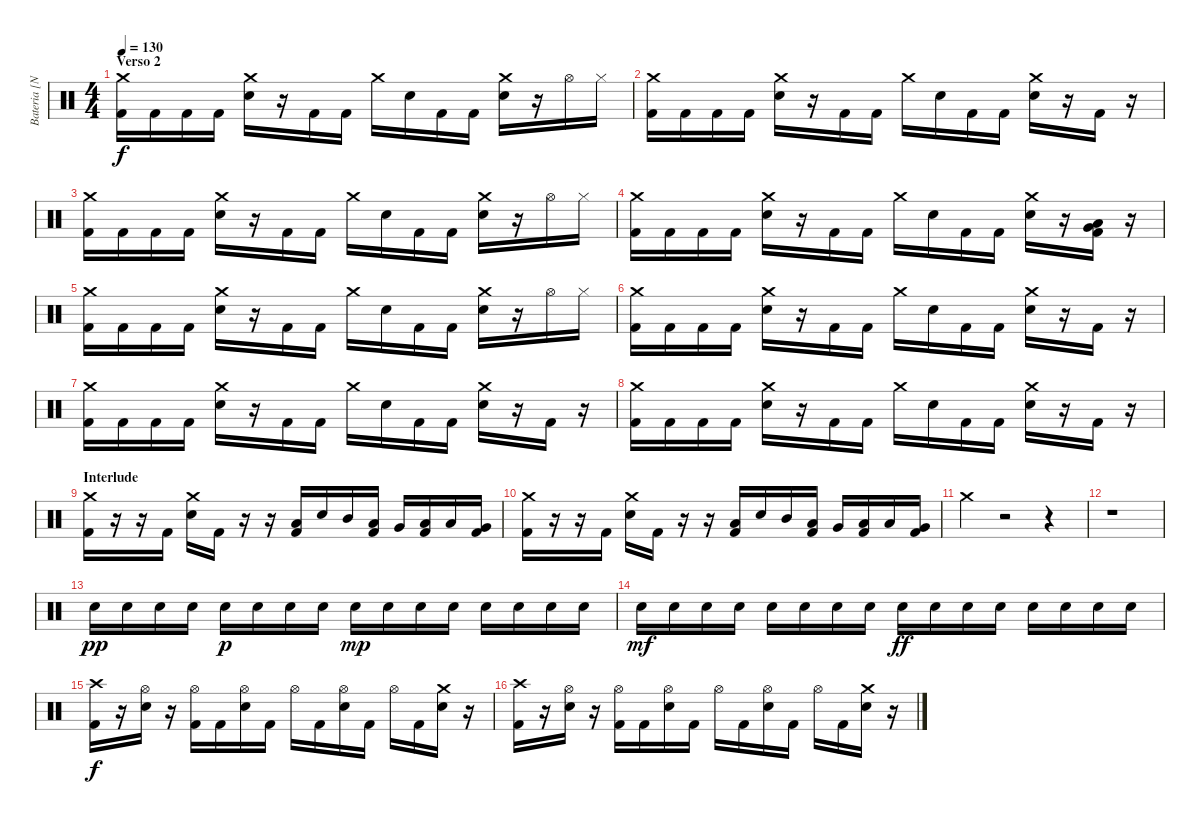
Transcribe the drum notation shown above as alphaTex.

\track ("Bateria [Nô]" "Bateria [N") {instrument percussion}
\staff {score}
\articulation defaults
\ts (4 4)
\section ("" "Verso 2")
\tempo 130
\clef neutral
\ks c
("Crash medium (hit)" "Kick (hit) 2").16{dy f} "Kick (hit) 2".16 "Kick (hit) 2".16 "Kick (hit) 2".16 ("Crash medium (hit)" "Snare (hit) 2").16 r.16 "Kick (hit) 2".16 "Kick (hit) 2".16 "Crash medium (hit)".16 "Snare (hit) 2".16 "Kick (hit) 2".16 "Kick (hit) 2".16 ("Crash medium (hit)" "Snare (hit) 2").16 r.16 "Hi-Hat (open)".16 "Hi-Hat (closed)".16 |
("Crash medium (hit)" "Kick (hit) 2").16 "Kick (hit) 2".16 "Kick (hit) 2".16 "Kick (hit) 2".16 ("Crash medium (hit)" "Snare (hit) 2").16 r.16 "Kick (hit) 2".16 "Kick (hit) 2".16 "Crash medium (hit)".16 "Snare (hit) 2".16 "Kick (hit) 2".16 "Kick (hit) 2".16 ("Crash medium (hit)" "Snare (hit) 2").16 r.16 "Kick (hit) 2".16 r.16 |
("Crash medium (hit)" "Kick (hit) 2").16 "Kick (hit) 2".16 "Kick (hit) 2".16 "Kick (hit) 2".16 ("Crash medium (hit)" "Snare (hit) 2").16 r.16 "Kick (hit) 2".16 "Kick (hit) 2".16 "Crash medium (hit)".16 "Snare (hit) 2".16 "Kick (hit) 2".16 "Kick (hit) 2".16 ("Crash medium (hit)" "Snare (hit) 2").16 r.16 "Hi-Hat (open)".16 "Hi-Hat (closed)".16 |
("Crash medium (hit)" "Kick (hit) 2").16 "Kick (hit) 2".16 "Kick (hit) 2".16 "Kick (hit) 2".16 ("Crash medium (hit)" "Snare (hit) 2").16 r.16 "Kick (hit) 2".16 "Kick (hit) 2".16 "Crash medium (hit)".16 "Snare (hit) 2".16 "Kick (hit) 2".16 "Kick (hit) 2".16 ("Crash medium (hit)" "Snare (hit) 2").16 r.16 ("Very Low Tom (hit)" "Low Floor Tom (hit)" "Kick (hit) 2").16 r.16 |
("Crash medium (hit)" "Kick (hit) 2").16 "Kick (hit) 2".16 "Kick (hit) 2".16 "Kick (hit) 2".16 ("Crash medium (hit)" "Snare (hit) 2").16 r.16 "Kick (hit) 2".16 "Kick (hit) 2".16 "Crash medium (hit)".16 "Snare (hit) 2".16 "Kick (hit) 2".16 "Kick (hit) 2".16 ("Crash medium (hit)" "Snare (hit) 2").16 r.16 "Hi-Hat (open)".16 "Hi-Hat (closed)".16 |
("Crash medium (hit)" "Kick (hit) 2").16 "Kick (hit) 2".16 "Kick (hit) 2".16 "Kick (hit) 2".16 ("Crash medium (hit)" "Snare (hit) 2").16 r.16 "Kick (hit) 2".16 "Kick (hit) 2".16 "Crash medium (hit)".16 "Snare (hit) 2".16 "Kick (hit) 2".16 "Kick (hit) 2".16 ("Crash medium (hit)" "Snare (hit) 2").16 r.16 "Kick (hit) 2".16 r.16 |
("Crash medium (hit)" "Kick (hit) 2").16 "Kick (hit) 2".16 "Kick (hit) 2".16 "Kick (hit) 2".16 ("Crash medium (hit)" "Snare (hit) 2").16 r.16 "Kick (hit) 2".16 "Kick (hit) 2".16 "Crash medium (hit)".16 "Snare (hit) 2".16 "Kick (hit) 2".16 "Kick (hit) 2".16 ("Crash medium (hit)" "Snare (hit) 2").16 r.16 "Kick (hit) 2".16 r.16 |
("Crash medium (hit)" "Kick (hit) 2").16 "Kick (hit) 2".16 "Kick (hit) 2".16 "Kick (hit) 2".16 ("Crash medium (hit)" "Snare (hit) 2").16 r.16 "Kick (hit) 2".16 "Kick (hit) 2".16 "Crash medium (hit)".16 "Snare (hit) 2".16 "Kick (hit) 2".16 "Kick (hit) 2".16 ("Crash medium (hit)" "Snare (hit) 2").16 r.16 "Kick (hit) 2".16 r.16 |
\section ("" "Interlude")
("Crash medium (hit)" "Kick (hit) 2").16 r.16 r.16 "Kick (hit) 2".16 ("Crash medium (hit)" "Snare (hit) 2").16 "Kick (hit) 2".16 r.16 r.16 ("Low Floor Tom (hit)" "Kick (hit) 2").16 "Snare (hit) 2".16 "Mid Tom (hit)".16 ("Low Tom (hit)" "Kick (hit) 2").16 "Very Low Tom (hit)".16 ("Low Tom (hit)" "Kick (hit) 2").16 "Low Floor Tom (hit)".16 ("Very Low Tom (hit)" "Kick (hit) 2").16 |
("Crash medium (hit)" "Kick (hit) 2").16 r.16 r.16 "Kick (hit) 2".16 ("Crash medium (hit)" "Snare (hit) 2").16 "Kick (hit) 2".16 r.16 r.16 ("Low Floor Tom (hit)" "Kick (hit) 2").16 "Snare (hit) 2".16 "Mid Tom (hit)".16 ("Low Tom (hit)" "Kick (hit) 2").16 "Very Low Tom (hit)".16 ("Low Tom (hit)" "Kick (hit) 2").16 "Low Floor Tom (hit)".16 ("Very Low Tom (hit)" "Kick (hit) 2").16 |
"Crash medium (hit)".4 r.2 r.4 |
r.1 |
"Snare (hit) 2".16{dy pp} "Snare (hit) 2".16 "Snare (hit) 2".16 "Snare (hit) 2".16 "Snare (hit) 2".16{dy p} "Snare (hit) 2".16 "Snare (hit) 2".16 "Snare (hit) 2".16 "Snare (hit) 2".16{dy mp} "Snare (hit) 2".16 "Snare (hit) 2".16 "Snare (hit) 2".16 "Snare (hit) 2".16 "Snare (hit) 2".16 "Snare (hit) 2".16 "Snare (hit) 2".16 |
"Snare (hit) 2".16{dy mf} "Snare (hit) 2".16 "Snare (hit) 2".16 "Snare (hit) 2".16 "Snare (hit) 2".16 "Snare (hit) 2".16 "Snare (hit) 2".16 "Snare (hit) 2".16 "Snare (hit) 2".16{dy ff} "Snare (hit) 2".16 "Snare (hit) 2".16 "Snare (hit) 2".16 "Snare (hit) 2".16 "Snare (hit) 2".16 "Snare (hit) 2".16 "Snare (hit) 2".16 |
("Crash high (hit)" "Kick (hit) 2").16{dy f} r.16 ("Hi-Hat (open)" "Snare (hit) 2").16 r.16 ("Hi-Hat (open)" "Kick (hit) 2").16 "Kick (hit) 2".16 ("Hi-Hat (open)" "Snare (hit) 2").16 "Kick (hit) 2".16 "Hi-Hat (open)".16 "Kick (hit) 2".16 ("Hi-Hat (open)" "Snare (hit) 2").16 "Kick (hit) 2".16 "Hi-Hat (open)".16 "Kick (hit) 2".16 ("Crash medium (hit)" "Snare (hit) 2").16 r.16 |
("Crash high (hit)" "Kick (hit) 2").16 r.16 ("Hi-Hat (open)" "Snare (hit) 2").16 r.16 ("Hi-Hat (open)" "Kick (hit) 2").16 "Kick (hit) 2".16 ("Hi-Hat (open)" "Snare (hit) 2").16 "Kick (hit) 2".16 "Hi-Hat (open)".16 "Kick (hit) 2".16 ("Hi-Hat (open)" "Snare (hit) 2").16 "Kick (hit) 2".16 "Hi-Hat (open)".16 "Kick (hit) 2".16 ("Crash medium (hit)" "Snare (hit) 2").16 r.16
